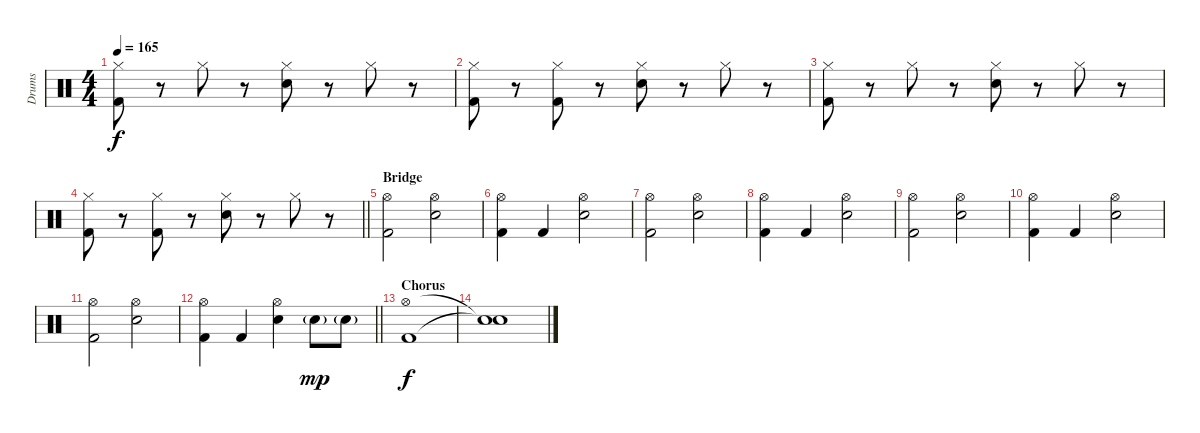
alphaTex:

\track ("Drums" "Drums") {instrument percussion}
\staff {score}
\articulation defaults
\ts (4 4)
\tempo 165
\clef neutral
\ks c
("Hi-Hat (closed)" "Kick (hit) 2").8{dy f} r.8 "Hi-Hat (closed)".8 r.8 ("Hi-Hat (closed)" "Electric Snare (hit)").8 r.8 "Hi-Hat (closed)".8 r.8 |
("Hi-Hat (closed)" "Kick (hit) 2").8 r.8 ("Hi-Hat (closed)" "Kick (hit) 2").8 r.8 ("Hi-Hat (closed)" "Electric Snare (hit)").8 r.8 "Hi-Hat (closed)".8 r.8 |
("Hi-Hat (closed)" "Kick (hit) 2").8 r.8 "Hi-Hat (closed)".8 r.8 ("Hi-Hat (closed)" "Electric Snare (hit)").8 r.8 "Hi-Hat (closed)".8 r.8 |
\barLineRight lightlight
("Hi-Hat (closed)" "Kick (hit) 2").8 r.8 ("Hi-Hat (closed)" "Kick (hit) 2").8 r.8 ("Hi-Hat (closed)" "Electric Snare (hit)").8 r.8 "Hi-Hat (closed)".8 r.8 |
\section ("" "Bridge")
("Hi-Hat (open)" "Kick (hit) 2").2 ("Hi-Hat (open)" "Electric Snare (hit)").2 |
("Hi-Hat (open)" "Kick (hit) 2").4 "Kick (hit) 2".4 ("Hi-Hat (open)" "Electric Snare (hit)").2 |
("Hi-Hat (open)" "Kick (hit) 2").2 ("Hi-Hat (open)" "Electric Snare (hit)").2 |
("Hi-Hat (open)" "Kick (hit) 2").4 "Kick (hit) 2".4 ("Hi-Hat (open)" "Electric Snare (hit)").2 |
("Hi-Hat (open)" "Kick (hit) 2").2 ("Hi-Hat (open)" "Electric Snare (hit)").2 |
("Hi-Hat (open)" "Kick (hit) 2").4 "Kick (hit) 2".4 ("Hi-Hat (open)" "Electric Snare (hit)").2 |
("Hi-Hat (open)" "Kick (hit) 2").2 ("Hi-Hat (open)" "Electric Snare (hit)").2 |
\barLineRight lightlight
("Hi-Hat (open)" "Kick (hit) 2").4 "Kick (hit) 2".4 ("Hi-Hat (open)" "Electric Snare (hit)").4 "Electric Snare (hit)"{g}.8{dy mp} "Electric Snare (hit)"{g}.8 |
\section ("" "Chorus")
("Hi-Hat (open)" "Kick (hit) 2").1{dy f} |
("Snare (hit)"{t} "Snare (hit)"{t}).1
